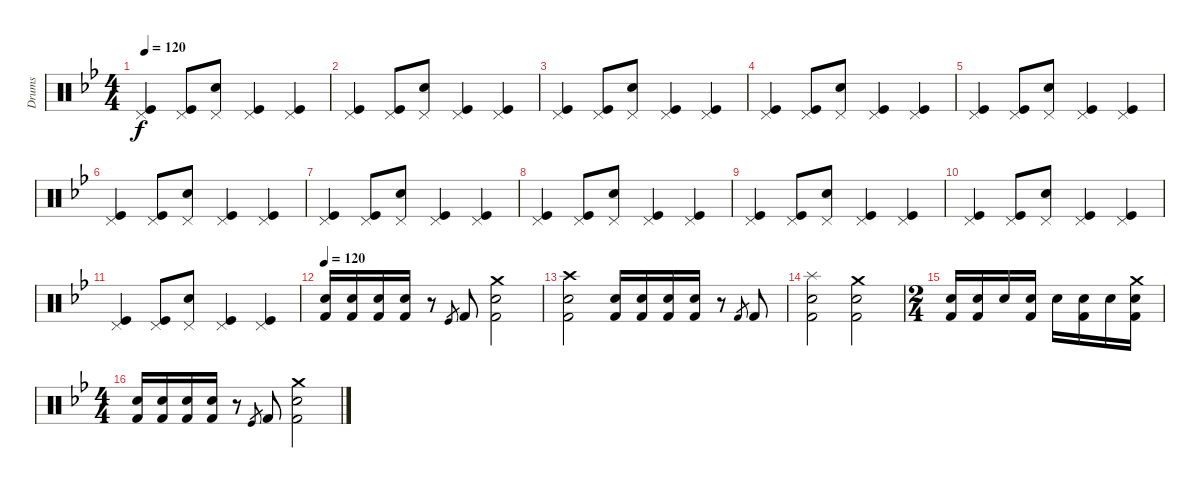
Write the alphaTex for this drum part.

\track ("Drums" "Drums") {instrument percussion}
\staff {score}
\articulation defaults
\ts (4 4)
\tempo 120
\clef neutral
\ks bb
("Pedal Hi-Hat (hit)" "Kick (hit)").4{dy f} ("Pedal Hi-Hat (hit)" "Kick (hit)").8 ("Pedal Hi-Hat (hit)" "Electric Snare (hit)").8 ("Pedal Hi-Hat (hit)" "Kick (hit)").4 ("Pedal Hi-Hat (hit)" "Kick (hit)").4 |
("Pedal Hi-Hat (hit)" "Kick (hit)").4 ("Pedal Hi-Hat (hit)" "Kick (hit)").8 ("Pedal Hi-Hat (hit)" "Electric Snare (hit)").8 ("Pedal Hi-Hat (hit)" "Kick (hit)").4 ("Pedal Hi-Hat (hit)" "Kick (hit)").4 |
("Pedal Hi-Hat (hit)" "Kick (hit)").4 ("Pedal Hi-Hat (hit)" "Kick (hit)").8 ("Pedal Hi-Hat (hit)" "Electric Snare (hit)").8 ("Pedal Hi-Hat (hit)" "Kick (hit)").4 ("Pedal Hi-Hat (hit)" "Kick (hit)").4 |
("Pedal Hi-Hat (hit)" "Kick (hit)").4 ("Pedal Hi-Hat (hit)" "Kick (hit)").8 ("Pedal Hi-Hat (hit)" "Electric Snare (hit)").8 ("Pedal Hi-Hat (hit)" "Kick (hit)").4 ("Pedal Hi-Hat (hit)" "Kick (hit)").4 |
("Pedal Hi-Hat (hit)" "Kick (hit)").4 ("Pedal Hi-Hat (hit)" "Kick (hit)").8 ("Pedal Hi-Hat (hit)" "Electric Snare (hit)").8 ("Pedal Hi-Hat (hit)" "Kick (hit)").4 ("Pedal Hi-Hat (hit)" "Kick (hit)").4 |
("Pedal Hi-Hat (hit)" "Kick (hit)").4 ("Pedal Hi-Hat (hit)" "Kick (hit)").8 ("Pedal Hi-Hat (hit)" "Electric Snare (hit)").8 ("Pedal Hi-Hat (hit)" "Kick (hit)").4 ("Pedal Hi-Hat (hit)" "Kick (hit)").4 |
("Pedal Hi-Hat (hit)" "Kick (hit)").4 ("Pedal Hi-Hat (hit)" "Kick (hit)").8 ("Pedal Hi-Hat (hit)" "Electric Snare (hit)").8 ("Pedal Hi-Hat (hit)" "Kick (hit)").4 ("Pedal Hi-Hat (hit)" "Kick (hit)").4 |
("Pedal Hi-Hat (hit)" "Kick (hit)").4 ("Pedal Hi-Hat (hit)" "Kick (hit)").8 ("Pedal Hi-Hat (hit)" "Electric Snare (hit)").8 ("Pedal Hi-Hat (hit)" "Kick (hit)").4 ("Pedal Hi-Hat (hit)" "Kick (hit)").4 |
("Pedal Hi-Hat (hit)" "Kick (hit)").4 ("Pedal Hi-Hat (hit)" "Kick (hit)").8 ("Pedal Hi-Hat (hit)" "Electric Snare (hit)").8 ("Pedal Hi-Hat (hit)" "Kick (hit)").4 ("Pedal Hi-Hat (hit)" "Kick (hit)").4 |
("Pedal Hi-Hat (hit)" "Kick (hit)").4 ("Pedal Hi-Hat (hit)" "Kick (hit)").8 ("Pedal Hi-Hat (hit)" "Electric Snare (hit)").8 ("Pedal Hi-Hat (hit)" "Kick (hit)").4 ("Pedal Hi-Hat (hit)" "Kick (hit)").4 |
("Pedal Hi-Hat (hit)" "Kick (hit)").4 ("Pedal Hi-Hat (hit)" "Kick (hit)").8 ("Pedal Hi-Hat (hit)" "Electric Snare (hit)").8 ("Pedal Hi-Hat (hit)" "Kick (hit)").4 ("Pedal Hi-Hat (hit)" "Kick (hit)").4 |
\tempo 120
("Electric Snare (hit)" "Kick (hit) 2").16 ("Electric Snare (hit)" "Kick (hit) 2").16 ("Electric Snare (hit)" "Kick (hit) 2").16 ("Electric Snare (hit)" "Kick (hit) 2").16 r.8 "Kick (hit)".8{gr} "Kick (hit) 2".8 ("Crash medium (hit)" "Electric Snare (hit)" "Kick (hit) 2").2 |
("Crash high (hit)" "Electric Snare (hit)" "Kick (hit) 2").2{volume 16} ("Electric Snare (hit)" "Kick (hit) 2").16 ("Electric Snare (hit)" "Kick (hit) 2").16 ("Electric Snare (hit)" "Kick (hit) 2").16 ("Electric Snare (hit)" "Kick (hit) 2").16 r.8 "Kick (hit) 2".8{gr} "Kick (hit) 2".8 |
("Splash (hit)" "Electric Snare (hit)" "Kick (hit) 2").2 ("Crash medium (hit)" "Electric Snare (hit)" "Kick (hit) 2").2 |
\ts (2 4)
("Electric Snare (hit)" "Kick (hit) 2").16 ("Electric Snare (hit)" "Kick (hit) 2").16 "Electric Snare (hit)".16 ("Electric Snare (hit)" "Kick (hit) 2").16 "Electric Snare (hit)".16 ("Electric Snare (hit)" "Kick (hit) 2").16 "Electric Snare (hit)".16 ("Crash medium (hit)" "Electric Snare (hit)" "Kick (hit) 2").16 |
\ts (4 4)
("Electric Snare (hit)" "Kick (hit) 2").16 ("Electric Snare (hit)" "Kick (hit) 2").16 ("Electric Snare (hit)" "Kick (hit) 2").16 ("Electric Snare (hit)" "Kick (hit) 2").16 r.8 "Kick (hit)".8{gr} "Kick (hit) 2".8 ("Crash medium (hit)" "Electric Snare (hit)" "Kick (hit) 2").2
